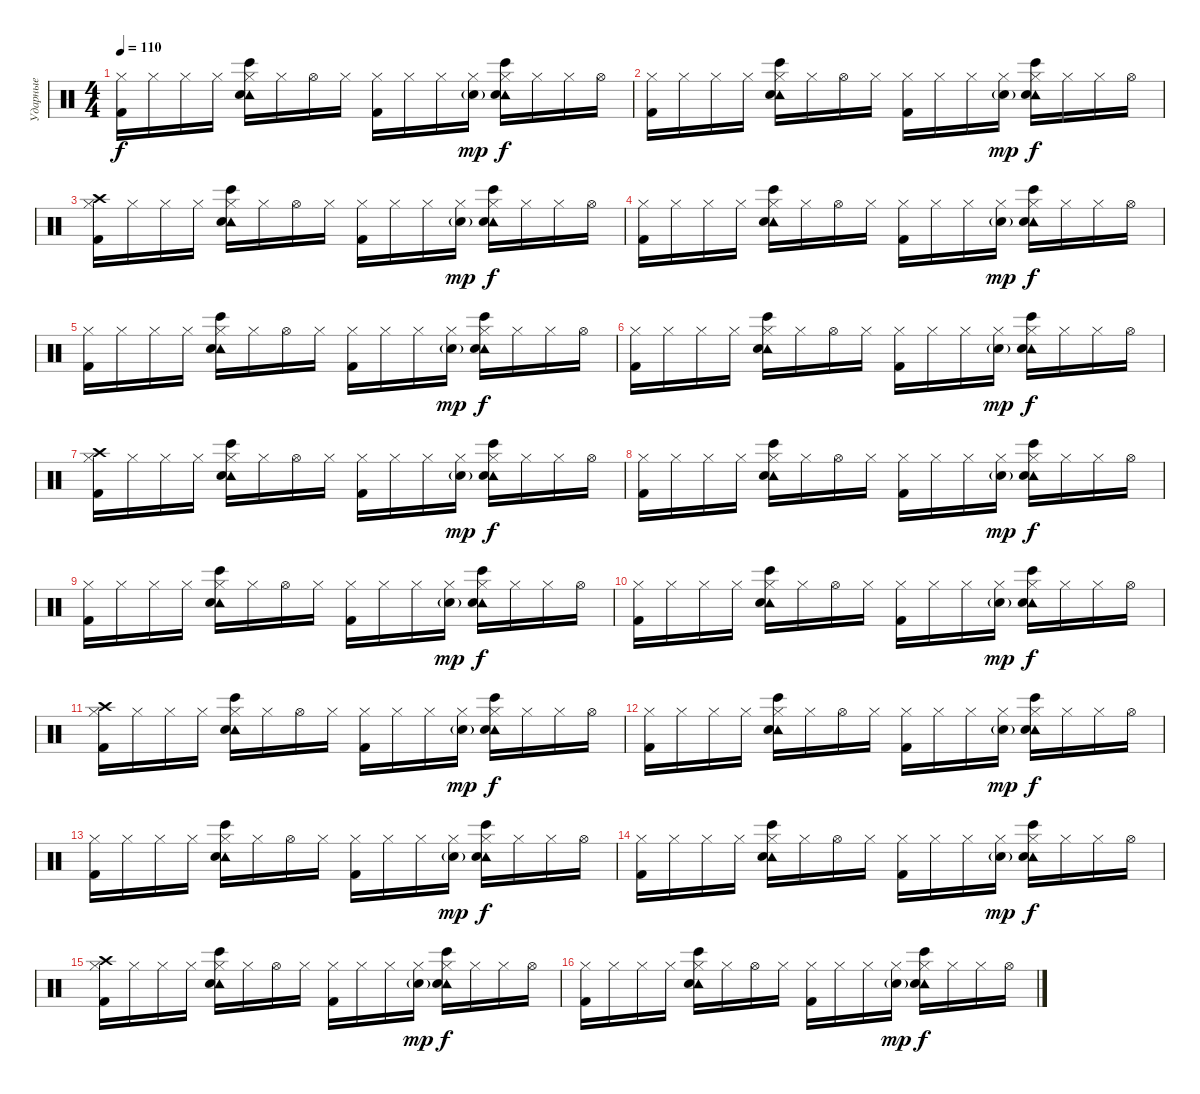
\track ("Ударные" "Ударные") {instrument percussion}
\staff {score}
\articulation defaults
\ts (4 4)
\tempo 110
\clef neutral
\ks c
("Hi-Hat (closed)" "Kick (hit) 2").16{dy f} "Hi-Hat (closed)".16 "Hi-Hat (closed)".16 "Hi-Hat (closed)".16 ("Hi-Hat (closed)" "Tambourine (hit)" "Electric Snare (hit)" "Bongo High (hit)").16 "Hi-Hat (closed)".16 "Hi-Hat (open)".16 "Hi-Hat (closed)".16 ("Hi-Hat (closed)" "Kick (hit) 2").16 "Hi-Hat (closed)".16 "Hi-Hat (closed)".16 ("Hi-Hat (closed)" "Electric Snare (hit)"{g}).16{dy mp} ("Hi-Hat (closed)" "Tambourine (hit)" "Electric Snare (hit)" "Bongo High (hit)").16{dy f} "Hi-Hat (closed)".16 "Hi-Hat (closed)".16 "Hi-Hat (open)".16 |
("Hi-Hat (closed)" "Kick (hit) 2").16 "Hi-Hat (closed)".16 "Hi-Hat (closed)".16 "Hi-Hat (closed)".16 ("Hi-Hat (closed)" "Tambourine (hit)" "Electric Snare (hit)" "Bongo High (hit)").16 "Hi-Hat (closed)".16 "Hi-Hat (open)".16 "Hi-Hat (closed)".16 ("Hi-Hat (closed)" "Kick (hit) 2").16 "Hi-Hat (closed)".16 "Hi-Hat (closed)".16 ("Hi-Hat (closed)" "Electric Snare (hit)"{g}).16{dy mp} ("Hi-Hat (closed)" "Tambourine (hit)" "Electric Snare (hit)" "Bongo High (hit)").16{dy f} "Hi-Hat (closed)".16 "Hi-Hat (closed)".16 "Hi-Hat (open)".16 |
("Crash high (hit)" "Hi-Hat (closed)" "Kick (hit) 2").16 "Hi-Hat (closed)".16 "Hi-Hat (closed)".16 "Hi-Hat (closed)".16 ("Hi-Hat (closed)" "Tambourine (hit)" "Electric Snare (hit)" "Bongo High (hit)").16 "Hi-Hat (closed)".16 "Hi-Hat (open)".16 "Hi-Hat (closed)".16 ("Hi-Hat (closed)" "Kick (hit) 2").16 "Hi-Hat (closed)".16 "Hi-Hat (closed)".16 ("Hi-Hat (closed)" "Electric Snare (hit)"{g}).16{dy mp} ("Hi-Hat (closed)" "Tambourine (hit)" "Electric Snare (hit)" "Bongo High (hit)").16{dy f} "Hi-Hat (closed)".16 "Hi-Hat (closed)".16 "Hi-Hat (open)".16 |
("Hi-Hat (closed)" "Kick (hit) 2").16 "Hi-Hat (closed)".16 "Hi-Hat (closed)".16 "Hi-Hat (closed)".16 ("Hi-Hat (closed)" "Tambourine (hit)" "Electric Snare (hit)" "Bongo High (hit)").16 "Hi-Hat (closed)".16 "Hi-Hat (open)".16 "Hi-Hat (closed)".16 ("Hi-Hat (closed)" "Kick (hit) 2").16 "Hi-Hat (closed)".16 "Hi-Hat (closed)".16 ("Hi-Hat (closed)" "Electric Snare (hit)"{g}).16{dy mp} ("Hi-Hat (closed)" "Tambourine (hit)" "Electric Snare (hit)" "Bongo High (hit)").16{dy f} "Hi-Hat (closed)".16 "Hi-Hat (closed)".16 "Hi-Hat (open)".16 |
("Hi-Hat (closed)" "Kick (hit) 2").16 "Hi-Hat (closed)".16 "Hi-Hat (closed)".16 "Hi-Hat (closed)".16 ("Hi-Hat (closed)" "Tambourine (hit)" "Electric Snare (hit)" "Bongo High (hit)").16 "Hi-Hat (closed)".16 "Hi-Hat (open)".16 "Hi-Hat (closed)".16 ("Hi-Hat (closed)" "Kick (hit) 2").16 "Hi-Hat (closed)".16 "Hi-Hat (closed)".16 ("Hi-Hat (closed)" "Electric Snare (hit)"{g}).16{dy mp} ("Hi-Hat (closed)" "Tambourine (hit)" "Electric Snare (hit)" "Bongo High (hit)").16{dy f} "Hi-Hat (closed)".16 "Hi-Hat (closed)".16 "Hi-Hat (open)".16 |
("Hi-Hat (closed)" "Kick (hit) 2").16 "Hi-Hat (closed)".16 "Hi-Hat (closed)".16 "Hi-Hat (closed)".16 ("Hi-Hat (closed)" "Tambourine (hit)" "Electric Snare (hit)" "Bongo High (hit)").16 "Hi-Hat (closed)".16 "Hi-Hat (open)".16 "Hi-Hat (closed)".16 ("Hi-Hat (closed)" "Kick (hit) 2").16 "Hi-Hat (closed)".16 "Hi-Hat (closed)".16 ("Hi-Hat (closed)" "Electric Snare (hit)"{g}).16{dy mp} ("Hi-Hat (closed)" "Tambourine (hit)" "Electric Snare (hit)" "Bongo High (hit)").16{dy f} "Hi-Hat (closed)".16 "Hi-Hat (closed)".16 "Hi-Hat (open)".16 |
("Crash high (hit)" "Hi-Hat (closed)" "Kick (hit) 2").16 "Hi-Hat (closed)".16 "Hi-Hat (closed)".16 "Hi-Hat (closed)".16 ("Hi-Hat (closed)" "Tambourine (hit)" "Electric Snare (hit)" "Bongo High (hit)").16 "Hi-Hat (closed)".16 "Hi-Hat (open)".16 "Hi-Hat (closed)".16 ("Hi-Hat (closed)" "Kick (hit) 2").16 "Hi-Hat (closed)".16 "Hi-Hat (closed)".16 ("Hi-Hat (closed)" "Electric Snare (hit)"{g}).16{dy mp} ("Hi-Hat (closed)" "Tambourine (hit)" "Electric Snare (hit)" "Bongo High (hit)").16{dy f} "Hi-Hat (closed)".16 "Hi-Hat (closed)".16 "Hi-Hat (open)".16 |
("Hi-Hat (closed)" "Kick (hit) 2").16 "Hi-Hat (closed)".16 "Hi-Hat (closed)".16 "Hi-Hat (closed)".16 ("Hi-Hat (closed)" "Tambourine (hit)" "Electric Snare (hit)" "Bongo High (hit)").16 "Hi-Hat (closed)".16 "Hi-Hat (open)".16 "Hi-Hat (closed)".16 ("Hi-Hat (closed)" "Kick (hit) 2").16 "Hi-Hat (closed)".16 "Hi-Hat (closed)".16 ("Hi-Hat (closed)" "Electric Snare (hit)"{g}).16{dy mp} ("Hi-Hat (closed)" "Tambourine (hit)" "Electric Snare (hit)" "Bongo High (hit)").16{dy f} "Hi-Hat (closed)".16 "Hi-Hat (closed)".16 "Hi-Hat (open)".16 |
("Hi-Hat (closed)" "Kick (hit) 2").16 "Hi-Hat (closed)".16 "Hi-Hat (closed)".16 "Hi-Hat (closed)".16 ("Hi-Hat (closed)" "Tambourine (hit)" "Electric Snare (hit)" "Bongo High (hit)").16 "Hi-Hat (closed)".16 "Hi-Hat (open)".16 "Hi-Hat (closed)".16 ("Hi-Hat (closed)" "Kick (hit) 2").16 "Hi-Hat (closed)".16 "Hi-Hat (closed)".16 ("Hi-Hat (closed)" "Electric Snare (hit)"{g}).16{dy mp} ("Hi-Hat (closed)" "Tambourine (hit)" "Electric Snare (hit)" "Bongo High (hit)").16{dy f} "Hi-Hat (closed)".16 "Hi-Hat (closed)".16 "Hi-Hat (open)".16 |
("Hi-Hat (closed)" "Kick (hit) 2").16 "Hi-Hat (closed)".16 "Hi-Hat (closed)".16 "Hi-Hat (closed)".16 ("Hi-Hat (closed)" "Tambourine (hit)" "Electric Snare (hit)" "Bongo High (hit)").16 "Hi-Hat (closed)".16 "Hi-Hat (open)".16 "Hi-Hat (closed)".16 ("Hi-Hat (closed)" "Kick (hit) 2").16 "Hi-Hat (closed)".16 "Hi-Hat (closed)".16 ("Hi-Hat (closed)" "Electric Snare (hit)"{g}).16{dy mp} ("Hi-Hat (closed)" "Tambourine (hit)" "Electric Snare (hit)" "Bongo High (hit)").16{dy f} "Hi-Hat (closed)".16 "Hi-Hat (closed)".16 "Hi-Hat (open)".16 |
("Crash high (hit)" "Hi-Hat (closed)" "Kick (hit) 2").16 "Hi-Hat (closed)".16 "Hi-Hat (closed)".16 "Hi-Hat (closed)".16 ("Hi-Hat (closed)" "Tambourine (hit)" "Electric Snare (hit)" "Bongo High (hit)").16 "Hi-Hat (closed)".16 "Hi-Hat (open)".16 "Hi-Hat (closed)".16 ("Hi-Hat (closed)" "Kick (hit) 2").16 "Hi-Hat (closed)".16 "Hi-Hat (closed)".16 ("Hi-Hat (closed)" "Electric Snare (hit)"{g}).16{dy mp} ("Hi-Hat (closed)" "Tambourine (hit)" "Electric Snare (hit)" "Bongo High (hit)").16{dy f} "Hi-Hat (closed)".16 "Hi-Hat (closed)".16 "Hi-Hat (open)".16 |
("Hi-Hat (closed)" "Kick (hit) 2").16 "Hi-Hat (closed)".16 "Hi-Hat (closed)".16 "Hi-Hat (closed)".16 ("Hi-Hat (closed)" "Tambourine (hit)" "Electric Snare (hit)" "Bongo High (hit)").16 "Hi-Hat (closed)".16 "Hi-Hat (open)".16 "Hi-Hat (closed)".16 ("Hi-Hat (closed)" "Kick (hit) 2").16 "Hi-Hat (closed)".16 "Hi-Hat (closed)".16 ("Hi-Hat (closed)" "Electric Snare (hit)"{g}).16{dy mp} ("Hi-Hat (closed)" "Tambourine (hit)" "Electric Snare (hit)" "Bongo High (hit)").16{dy f} "Hi-Hat (closed)".16 "Hi-Hat (closed)".16 "Hi-Hat (open)".16 |
("Hi-Hat (closed)" "Kick (hit) 2").16 "Hi-Hat (closed)".16 "Hi-Hat (closed)".16 "Hi-Hat (closed)".16 ("Hi-Hat (closed)" "Tambourine (hit)" "Electric Snare (hit)" "Bongo High (hit)").16 "Hi-Hat (closed)".16 "Hi-Hat (open)".16 "Hi-Hat (closed)".16 ("Hi-Hat (closed)" "Kick (hit) 2").16 "Hi-Hat (closed)".16 "Hi-Hat (closed)".16 ("Hi-Hat (closed)" "Electric Snare (hit)"{g}).16{dy mp} ("Hi-Hat (closed)" "Tambourine (hit)" "Electric Snare (hit)" "Bongo High (hit)").16{dy f} "Hi-Hat (closed)".16 "Hi-Hat (closed)".16 "Hi-Hat (open)".16 |
("Hi-Hat (closed)" "Kick (hit) 2").16 "Hi-Hat (closed)".16 "Hi-Hat (closed)".16 "Hi-Hat (closed)".16 ("Hi-Hat (closed)" "Tambourine (hit)" "Electric Snare (hit)" "Bongo High (hit)").16 "Hi-Hat (closed)".16 "Hi-Hat (open)".16 "Hi-Hat (closed)".16 ("Hi-Hat (closed)" "Kick (hit) 2").16 "Hi-Hat (closed)".16 "Hi-Hat (closed)".16 ("Hi-Hat (closed)" "Electric Snare (hit)"{g}).16{dy mp} ("Hi-Hat (closed)" "Tambourine (hit)" "Electric Snare (hit)" "Bongo High (hit)").16{dy f} "Hi-Hat (closed)".16 "Hi-Hat (closed)".16 "Hi-Hat (open)".16 |
("Crash high (hit)" "Hi-Hat (closed)" "Kick (hit) 2").16 "Hi-Hat (closed)".16 "Hi-Hat (closed)".16 "Hi-Hat (closed)".16 ("Hi-Hat (closed)" "Tambourine (hit)" "Electric Snare (hit)" "Bongo High (hit)").16 "Hi-Hat (closed)".16 "Hi-Hat (open)".16 "Hi-Hat (closed)".16 ("Hi-Hat (closed)" "Kick (hit) 2").16 "Hi-Hat (closed)".16 "Hi-Hat (closed)".16 ("Hi-Hat (closed)" "Electric Snare (hit)"{g}).16{dy mp} ("Hi-Hat (closed)" "Tambourine (hit)" "Electric Snare (hit)" "Bongo High (hit)").16{dy f} "Hi-Hat (closed)".16 "Hi-Hat (closed)".16 "Hi-Hat (open)".16 |
("Hi-Hat (closed)" "Kick (hit) 2").16 "Hi-Hat (closed)".16 "Hi-Hat (closed)".16 "Hi-Hat (closed)".16 ("Hi-Hat (closed)" "Tambourine (hit)" "Electric Snare (hit)" "Bongo High (hit)").16 "Hi-Hat (closed)".16 "Hi-Hat (open)".16 "Hi-Hat (closed)".16 ("Hi-Hat (closed)" "Kick (hit) 2").16 "Hi-Hat (closed)".16 "Hi-Hat (closed)".16 ("Hi-Hat (closed)" "Electric Snare (hit)"{g}).16{dy mp} ("Hi-Hat (closed)" "Tambourine (hit)" "Electric Snare (hit)" "Bongo High (hit)").16{dy f} "Hi-Hat (closed)".16 "Hi-Hat (closed)".16 "Hi-Hat (open)".16
